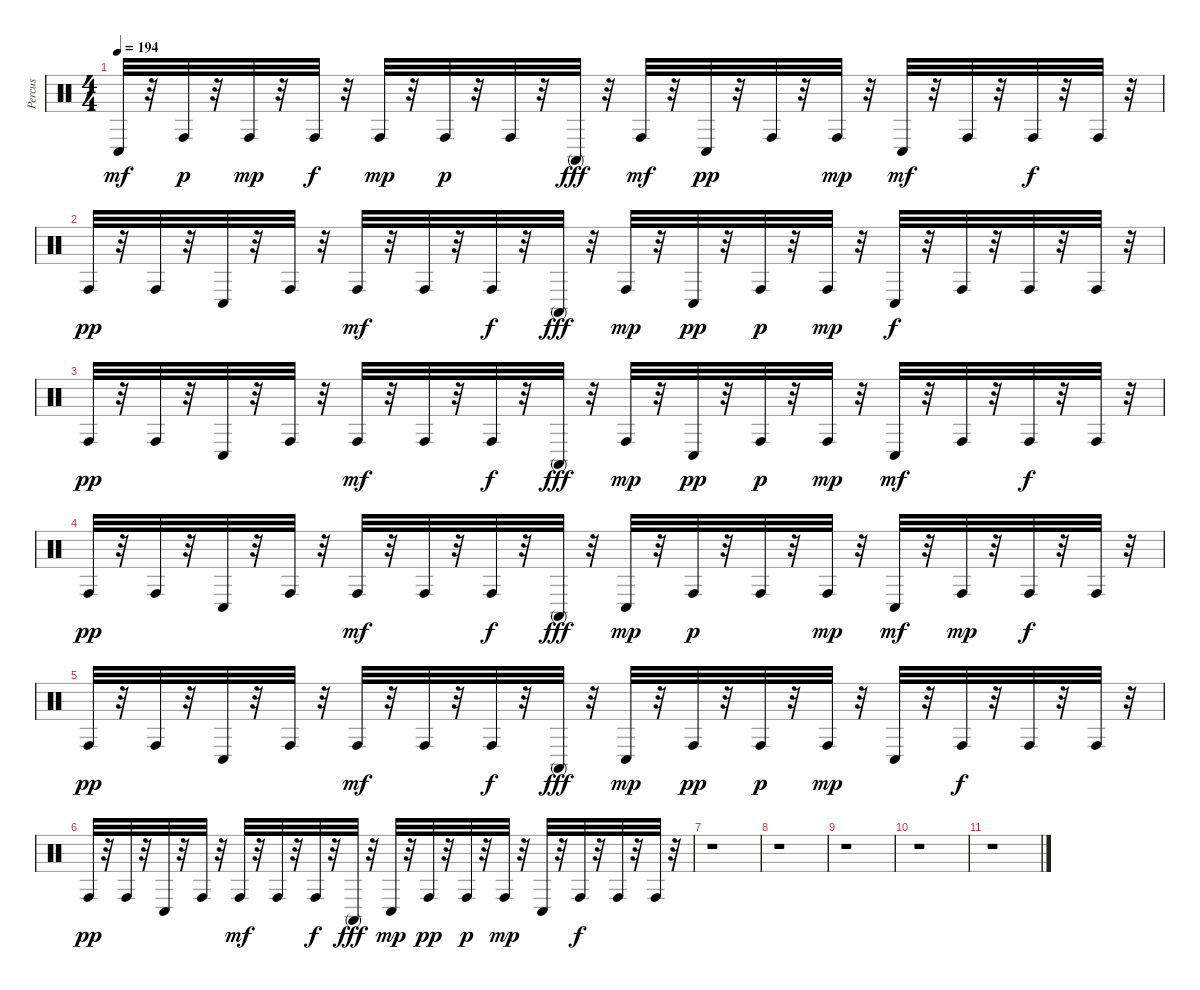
\track ("Percus" "Percus") {instrument percussion}
\staff {score}
\articulation defaults
\ts (4 4)
\tempo 194
\clef neutral
\ks c "Conga low (hit)".32{dy mf}
r.32 "Conga high (hit)".32{dy p} r.32 "Conga high (hit)".32{dy mp} r.32 "Conga high (hit)".32{dy f} r.32 "Conga high (hit)".32{dy mp} r.32 "Conga high (hit)".32{dy p} r.32 "Conga high (hit)".32 r.32 "Conga high (mute)".32{dy fff} r.32 "Conga high (hit)".32{dy mf} r.32 "Conga low (hit)".32{dy pp} r.32 "Conga high (hit)".32 r.32 "Conga high (hit)".32{dy mp} r.32 "Conga low (hit)".32{dy mf} r.32 "Conga high (hit)".32 r.32 "Conga high (hit)".32{dy f} r.32 "Conga high (hit)".32 r.32 |
"Conga high (hit)".32{dy pp} r.32 "Conga high (hit)".32 r.32 "Conga low (hit)".32 r.32 "Conga high (hit)".32 r.32 "Conga high (hit)".32{dy mf} r.32 "Conga high (hit)".32 r.32 "Conga high (hit)".32{dy f} r.32 "Conga high (mute)".32{dy fff} r.32 "Conga high (hit)".32{dy mp} r.32 "Conga low (hit)".32{dy pp} r.32 "Conga high (hit)".32{dy p} r.32 "Conga high (hit)".32{dy mp} r.32 "Conga low (hit)".32{dy f} r.32 "Conga high (hit)".32 r.32 "Conga high (hit)".32 r.32 "Conga high (hit)".32 r.32 |
"Conga high (hit)".32{dy pp} r.32 "Conga high (hit)".32 r.32 "Conga low (hit)".32 r.32 "Conga high (hit)".32 r.32 "Conga high (hit)".32{dy mf} r.32 "Conga high (hit)".32 r.32 "Conga high (hit)".32{dy f} r.32 "Conga high (mute)".32{dy fff} r.32 "Conga high (hit)".32{dy mp} r.32 "Conga low (hit)".32{dy pp} r.32 "Conga high (hit)".32{dy p} r.32 "Conga high (hit)".32{dy mp} r.32 "Conga low (hit)".32{dy mf} r.32 "Conga high (hit)".32 r.32 "Conga high (hit)".32{dy f} r.32 "Conga high (hit)".32 r.32 |
"Conga high (hit)".32{dy pp} r.32 "Conga high (hit)".32 r.32 "Conga low (hit)".32 r.32 "Conga high (hit)".32 r.32 "Conga high (hit)".32{dy mf} r.32 "Conga high (hit)".32 r.32 "Conga high (hit)".32{dy f} r.32 "Conga high (mute)".32{dy fff} r.32 "Conga low (hit)".32{dy mp} r.32 "Conga high (hit)".32{dy p} r.32 "Conga high (hit)".32 r.32 "Conga high (hit)".32{dy mp} r.32 "Conga low (hit)".32{dy mf} r.32 "Conga high (hit)".32{dy mp} r.32 "Conga high (hit)".32{dy f} r.32 "Conga high (hit)".32 r.32 |
"Conga high (hit)".32{dy pp} r.32 "Conga high (hit)".32 r.32 "Conga low (hit)".32 r.32 "Conga high (hit)".32 r.32 "Conga high (hit)".32{dy mf} r.32 "Conga high (hit)".32 r.32 "Conga high (hit)".32{dy f} r.32 "Conga high (mute)".32{dy fff} r.32 "Conga low (hit)".32{dy mp} r.32 "Conga high (hit)".32{dy pp} r.32 "Conga high (hit)".32{dy p} r.32 "Conga high (hit)".32{dy mp} r.32 "Conga low (hit)".32 r.32 "Conga high (hit)".32{dy f} r.32 "Conga high (hit)".32 r.32 "Conga high (hit)".32 r.32 |
"Conga high (hit)".32{dy pp} r.32 "Conga high (hit)".32 r.32 "Conga low (hit)".32 r.32 "Conga high (hit)".32 r.32 "Conga high (hit)".32{dy mf} r.32 "Conga high (hit)".32 r.32 "Conga high (hit)".32{dy f} r.32 "Conga high (mute)".32{dy fff} r.32 "Conga low (hit)".32{dy mp} r.32 "Conga high (hit)".32{dy pp} r.32 "Conga high (hit)".32{dy p} r.32 "Conga high (hit)".32{dy mp} r.32 "Conga low (hit)".32 r.32 "Conga high (hit)".32{dy f} r.32 "Conga high (hit)".32 r.32 "Conga high (hit)".32 r.32 |
r.1 |
r.1 |
r.1 |
r.1 |
r.1
